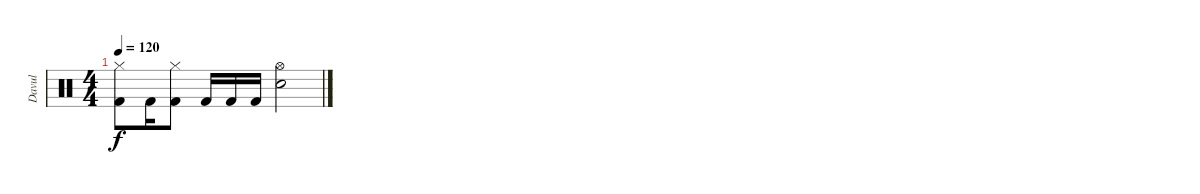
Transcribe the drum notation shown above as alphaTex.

\track ("Davul" "Davul") {instrument percussion}
\staff {score}
\articulation defaults
\ts (4 4)
\tempo 120
\clef neutral
\ks c
("Hi-Hat (closed)" "Kick (hit) 2").8{dy f} "Kick (hit) 2".16 ("Hi-Hat (closed)" "Kick (hit) 2").8 "Kick (hit) 2".16 "Kick (hit) 2".16 "Kick (hit) 2".16 ("Hi-Hat (open)" "Electric Snare (hit)").2
